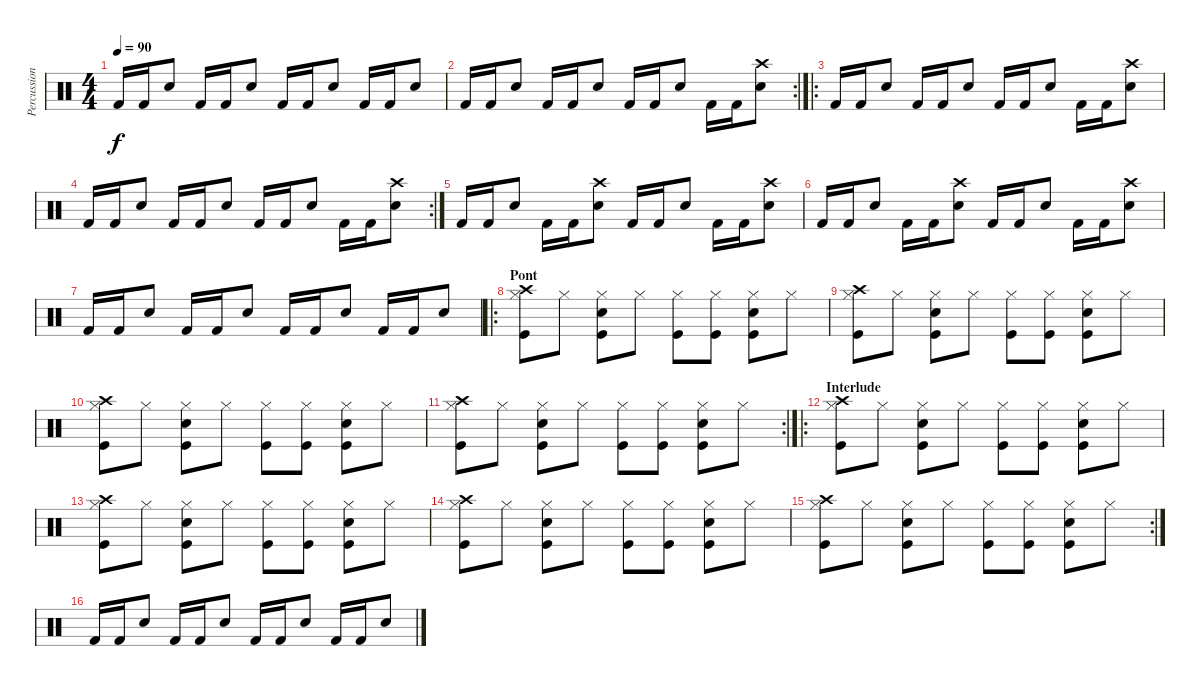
\track ("Percussions" "Percussion") {instrument percussion}
\staff {score}
\articulation defaults
\ts (4 4)
\tempo 90
\clef neutral
\ks c "Kick (hit) 2".16{dy f} "Kick (hit) 2".16 "Electric Snare (hit)".8 "Kick (hit) 2".16 "Kick (hit) 2".16 "Electric Snare (hit)".8 "Kick (hit) 2".16 "Kick (hit) 2".16 "Electric Snare (hit)".8 "Kick (hit) 2".16 "Kick (hit) 2".16 "Electric Snare (hit)".8
|
\rc 2 "Kick (hit) 2".16 "Kick (hit) 2".16 "Electric Snare (hit)".8 "Kick (hit) 2".16 "Kick (hit) 2".16 "Electric Snare (hit)".8 "Kick (hit) 2".16 "Kick (hit) 2".16 "Electric Snare (hit)".8 "Kick (hit) 2".16 "Kick (hit) 2".16
("Crash high (hit)" "Electric Snare (hit)").8 |
\ro "Kick (hit) 2".16 "Kick (hit) 2".16 "Electric Snare (hit)".8 "Kick (hit) 2".16 "Kick (hit) 2".16 "Electric Snare (hit)".8 "Kick (hit) 2".16 "Kick (hit) 2".16 "Electric Snare (hit)".8 "Kick (hit) 2".16 "Kick (hit) 2".16
("Crash high (hit)" "Electric Snare (hit)").8 |
\rc 2 "Kick (hit) 2".16 "Kick (hit) 2".16 "Electric Snare (hit)".8 "Kick (hit) 2".16 "Kick (hit) 2".16 "Electric Snare (hit)".8 "Kick (hit) 2".16 "Kick (hit) 2".16 "Electric Snare (hit)".8 "Kick (hit) 2".16 "Kick (hit) 2".16
("Crash high (hit)" "Electric Snare (hit)").8 |
"Kick (hit) 2".16 "Kick (hit) 2".16 "Electric Snare (hit)".8 "Kick (hit) 2".16 "Kick (hit) 2".16 ("Crash high (hit)" "Electric Snare (hit)").8 "Kick (hit) 2".16 "Kick (hit) 2".16 "Electric Snare (hit)".8 "Kick (hit) 2".16 "Kick (hit) 2".16 ("Crash high (hit)" "Electric Snare (hit)").8 |
"Kick (hit) 2".16 "Kick (hit) 2".16 "Electric Snare (hit)".8 "Kick (hit) 2".16 "Kick (hit) 2".16 ("Crash high (hit)" "Electric Snare (hit)").8 "Kick (hit) 2".16 "Kick (hit) 2".16 "Electric Snare (hit)".8 "Kick (hit) 2".16 "Kick (hit) 2".16 ("Crash high (hit)" "Electric Snare (hit)").8 |
"Kick (hit) 2".16 "Kick (hit) 2".16 "Electric Snare (hit)".8 "Kick (hit) 2".16 "Kick (hit) 2".16 "Electric Snare (hit)".8 "Kick (hit) 2".16 "Kick (hit) 2".16 "Electric Snare (hit)".8 "Kick (hit) 2".16 "Kick (hit) 2".16 "Electric Snare (hit)".8 |
\ro
\section ("" "Pont")
("Kick (hit)" "Crash high (hit)" "Hi-Hat (closed)").8 "Hi-Hat (closed)".8 ("Snare (hit) 2" "Kick (hit)" "Hi-Hat (closed)").8 "Hi-Hat (closed)".8 ("Kick (hit)" "Hi-Hat (closed)").8 ("Kick (hit)" "Hi-Hat (closed)").8 ("Snare (hit) 2" "Kick (hit)" "Hi-Hat (closed)").8 "Hi-Hat (closed)".8 |
("Kick (hit)" "Crash high (hit)" "Hi-Hat (closed)").8 "Hi-Hat (closed)".8 ("Snare (hit) 2" "Kick (hit)" "Hi-Hat (closed)").8 "Hi-Hat (closed)".8 ("Kick (hit)" "Hi-Hat (closed)").8 ("Kick (hit)" "Hi-Hat (closed)").8 ("Snare (hit) 2" "Kick (hit)" "Hi-Hat (closed)").8 "Hi-Hat (closed)".8 |
("Kick (hit)" "Crash high (hit)" "Hi-Hat (closed)").8 "Hi-Hat (closed)".8 ("Snare (hit) 2" "Kick (hit)" "Hi-Hat (closed)").8 "Hi-Hat (closed)".8 ("Kick (hit)" "Hi-Hat (closed)").8 ("Kick (hit)" "Hi-Hat (closed)").8 ("Snare (hit) 2" "Kick (hit)" "Hi-Hat (closed)").8 "Hi-Hat (closed)".8 |
\rc 2
("Kick (hit)" "Crash high (hit)" "Hi-Hat (closed)").8 "Hi-Hat (closed)".8 ("Snare (hit) 2" "Kick (hit)" "Hi-Hat (closed)").8 "Hi-Hat (closed)".8 ("Kick (hit)" "Hi-Hat (closed)").8 ("Kick (hit)" "Hi-Hat (closed)").8 ("Snare (hit) 2" "Kick (hit)" "Hi-Hat (closed)").8 "Hi-Hat (closed)".8 |
\ro
\section ("" "Interlude")
("Kick (hit)" "Crash high (hit)" "Hi-Hat (closed)").8 "Hi-Hat (closed)".8 ("Snare (hit) 2" "Kick (hit)" "Hi-Hat (closed)").8 "Hi-Hat (closed)".8 ("Kick (hit)" "Hi-Hat (closed)").8 ("Kick (hit)" "Hi-Hat (closed)").8 ("Snare (hit) 2" "Kick (hit)" "Hi-Hat (closed)").8 "Hi-Hat (closed)".8 |
("Kick (hit)" "Crash high (hit)" "Hi-Hat (closed)").8 "Hi-Hat (closed)".8 ("Snare (hit) 2" "Kick (hit)" "Hi-Hat (closed)").8 "Hi-Hat (closed)".8 ("Kick (hit)" "Hi-Hat (closed)").8 ("Kick (hit)" "Hi-Hat (closed)").8 ("Snare (hit) 2" "Kick (hit)" "Hi-Hat (closed)").8 "Hi-Hat (closed)".8 |
("Kick (hit)" "Crash high (hit)" "Hi-Hat (closed)").8 "Hi-Hat (closed)".8 ("Snare (hit) 2" "Kick (hit)" "Hi-Hat (closed)").8 "Hi-Hat (closed)".8 ("Kick (hit)" "Hi-Hat (closed)").8 ("Kick (hit)" "Hi-Hat (closed)").8 ("Snare (hit) 2" "Kick (hit)" "Hi-Hat (closed)").8 "Hi-Hat (closed)".8 |
\rc 2
("Kick (hit)" "Crash high (hit)" "Hi-Hat (closed)").8 "Hi-Hat (closed)".8 ("Snare (hit) 2" "Kick (hit)" "Hi-Hat (closed)").8 "Hi-Hat (closed)".8 ("Kick (hit)" "Hi-Hat (closed)").8 ("Kick (hit)" "Hi-Hat (closed)").8 ("Snare (hit) 2" "Kick (hit)" "Hi-Hat (closed)").8 "Hi-Hat (closed)".8 |
"Kick (hit) 2".16 "Kick (hit) 2".16 "Electric Snare (hit)".8 "Kick (hit) 2".16 "Kick (hit) 2".16 "Electric Snare (hit)".8 "Kick (hit) 2".16 "Kick (hit) 2".16 "Electric Snare (hit)".8 "Kick (hit) 2".16 "Kick (hit) 2".16 "Electric Snare (hit)".8
